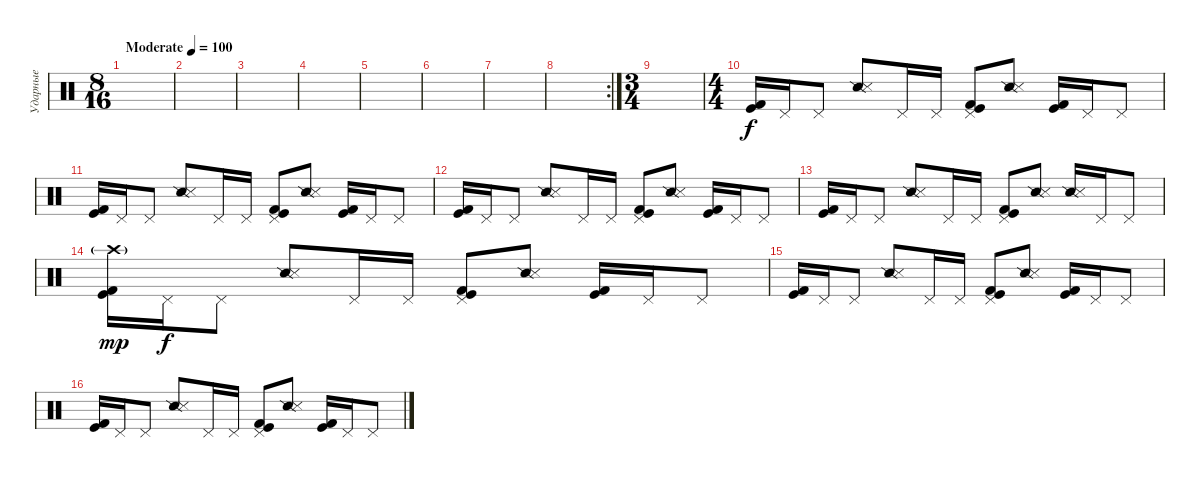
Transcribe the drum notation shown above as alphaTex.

\track ("Ударные" "Ударные") {instrument percussion}
\staff {score}
\articulation defaults
\ts (8 16)
\tempo (100 "Moderate")
\clef neutral
\ks c
|
|
|
|
|
|
|
\rc 2
|
\ts (3 4)
|
\ts (4 4)
("Kick (hit)" "Kick (hit) 2").16 "Pedal Hi-Hat (hit)".16 "Pedal Hi-Hat (hit)".8 ("Snare (side stick) 2" "Snare (side stick) 3").8 "Pedal Hi-Hat (hit)".16 "Pedal Hi-Hat (hit)".16 ("Pedal Hi-Hat (hit)" "Kick (hit)" "Kick (hit) 2").8 ("Snare (side stick) 2" "Snare (side stick) 3").8 ("Kick (hit)" "Kick (hit) 2").16 "Pedal Hi-Hat (hit)".16 "Pedal Hi-Hat (hit)".8 |
("Kick (hit)" "Kick (hit) 2").16 "Pedal Hi-Hat (hit)".16 "Pedal Hi-Hat (hit)".8 ("Snare (side stick) 2" "Snare (side stick) 3").8 "Pedal Hi-Hat (hit)".16 "Pedal Hi-Hat (hit)".16 ("Pedal Hi-Hat (hit)" "Kick (hit)" "Kick (hit) 2").8 ("Snare (side stick) 2" "Snare (side stick) 3").8 ("Kick (hit)" "Kick (hit) 2").16 "Pedal Hi-Hat (hit)".16 "Pedal Hi-Hat (hit)".8 |
("Kick (hit)" "Kick (hit) 2").16 "Pedal Hi-Hat (hit)".16 "Pedal Hi-Hat (hit)".8 ("Snare (side stick) 2" "Snare (side stick) 3").8 "Pedal Hi-Hat (hit)".16 "Pedal Hi-Hat (hit)".16 ("Pedal Hi-Hat (hit)" "Kick (hit)" "Kick (hit) 2").8 ("Snare (side stick) 2" "Snare (side stick) 3").8 ("Kick (hit)" "Kick (hit) 2").16 "Pedal Hi-Hat (hit)".16 "Pedal Hi-Hat (hit)".8 |
("Kick (hit)" "Kick (hit) 2").16 "Pedal Hi-Hat (hit)".16 "Pedal Hi-Hat (hit)".8 ("Snare (side stick) 2" "Snare (side stick) 3").8 "Pedal Hi-Hat (hit)".16 "Pedal Hi-Hat (hit)".16 ("Pedal Hi-Hat (hit)" "Kick (hit)" "Kick (hit) 2").8 ("Snare (side stick) 2" "Snare (side stick) 3").8 ("Snare (side stick) 2" "Snare (side stick) 3").16 "Pedal Hi-Hat (hit)".16 "Pedal Hi-Hat (hit)".8 |
("Crash high (hit)"{g} "Kick (hit)" "Kick (hit) 2").16{dy mp} "Pedal Hi-Hat (hit)".16{dy f} "Pedal Hi-Hat (hit)".8 ("Snare (side stick) 2" "Snare (side stick) 3").8 "Pedal Hi-Hat (hit)".16 "Pedal Hi-Hat (hit)".16 ("Pedal Hi-Hat (hit)" "Kick (hit)" "Kick (hit) 2").8 ("Snare (side stick) 2" "Snare (side stick) 3").8 ("Kick (hit)" "Kick (hit) 2").16 "Pedal Hi-Hat (hit)".16 "Pedal Hi-Hat (hit)".8 |
("Kick (hit)" "Kick (hit) 2").16 "Pedal Hi-Hat (hit)".16 "Pedal Hi-Hat (hit)".8 ("Snare (side stick) 2" "Snare (side stick) 3").8 "Pedal Hi-Hat (hit)".16 "Pedal Hi-Hat (hit)".16 ("Pedal Hi-Hat (hit)" "Kick (hit)" "Kick (hit) 2").8 ("Snare (side stick) 2" "Snare (side stick) 3").8 ("Kick (hit)" "Kick (hit) 2").16 "Pedal Hi-Hat (hit)".16 "Pedal Hi-Hat (hit)".8 |
("Kick (hit)" "Kick (hit) 2").16 "Pedal Hi-Hat (hit)".16 "Pedal Hi-Hat (hit)".8 ("Snare (side stick) 2" "Snare (side stick) 3").8 "Pedal Hi-Hat (hit)".16 "Pedal Hi-Hat (hit)".16 ("Pedal Hi-Hat (hit)" "Kick (hit)" "Kick (hit) 2").8 ("Snare (side stick) 2" "Snare (side stick) 3").8 ("Kick (hit)" "Kick (hit) 2").16 "Pedal Hi-Hat (hit)".16 "Pedal Hi-Hat (hit)".8
